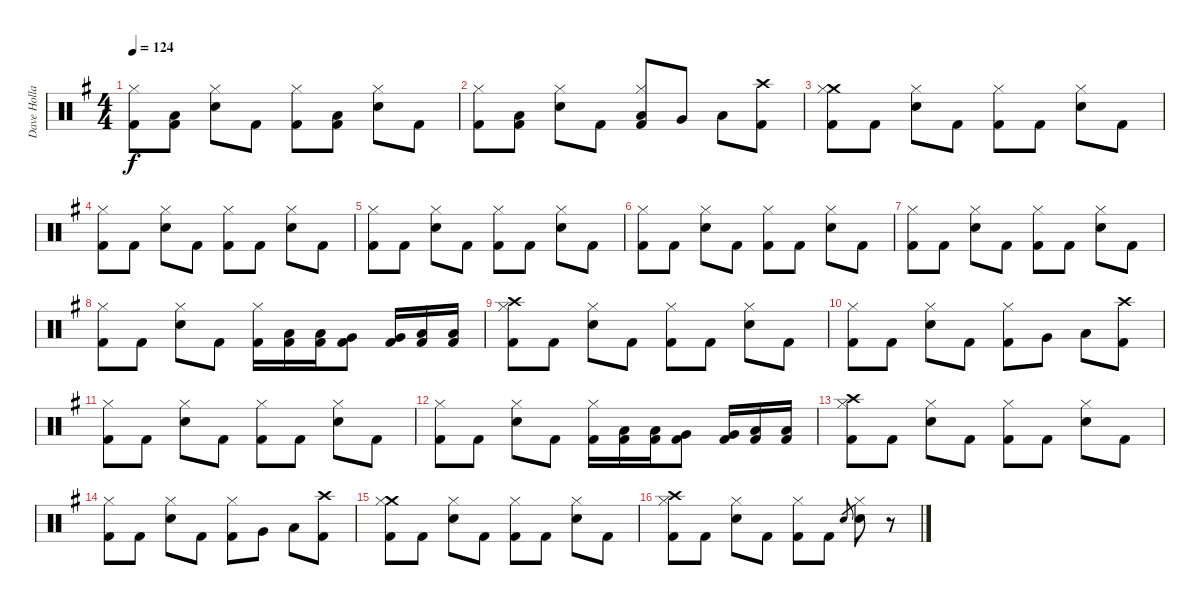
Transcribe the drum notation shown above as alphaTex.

\track ("Dave Holland" "Dave Holla") {instrument percussion}
\staff {score}
\articulation defaults
\ts (4 4)
\tempo 124
\clef neutral
\ks g
("Kick (hit) 2" "Hi-Hat (closed)").8{dy f} ("Kick (hit) 2" "Low Tom (hit)").8 ("Snare (hit) 2" "Hi-Hat (closed)").8 "Kick (hit) 2".8 ("Kick (hit) 2" "Hi-Hat (closed)").8 ("Kick (hit) 2" "Low Tom (hit)").8 ("Snare (hit) 2" "Hi-Hat (closed)").8 "Kick (hit) 2".8 |
("Kick (hit) 2" "Hi-Hat (closed)").8 ("Kick (hit) 2" "Low Tom (hit)").8 ("Snare (hit) 2" "Hi-Hat (closed)").8 "Kick (hit) 2".8 ("Kick (hit) 2" "Low Tom (hit)" "Hi-Hat (closed)").8 "Very Low Tom (hit)".8 "Low Floor Tom (hit)".8 ("Crash high (hit)" "Kick (hit) 2").8 |
("Kick (hit) 2" "Crash medium (hit)" "Hi-Hat (closed)").8 "Kick (hit) 2".8 ("Snare (hit) 2" "Hi-Hat (closed)").8 "Kick (hit) 2".8 ("Kick (hit) 2" "Hi-Hat (closed)").8 "Kick (hit) 2".8 ("Snare (hit) 2" "Hi-Hat (closed)").8 "Kick (hit) 2".8 |
("Kick (hit) 2" "Hi-Hat (closed)").8 "Kick (hit) 2".8 ("Snare (hit) 2" "Hi-Hat (closed)").8 "Kick (hit) 2".8 ("Kick (hit) 2" "Hi-Hat (closed)").8 "Kick (hit) 2".8 ("Snare (hit) 2" "Hi-Hat (closed)").8 "Kick (hit) 2".8 |
("Kick (hit) 2" "Hi-Hat (closed)").8 "Kick (hit) 2".8 ("Snare (hit) 2" "Hi-Hat (closed)").8 "Kick (hit) 2".8 ("Kick (hit) 2" "Hi-Hat (closed)").8 "Kick (hit) 2".8 ("Snare (hit) 2" "Hi-Hat (closed)").8 "Kick (hit) 2".8 |
("Kick (hit) 2" "Hi-Hat (closed)").8 "Kick (hit) 2".8 ("Snare (hit) 2" "Hi-Hat (closed)").8 "Kick (hit) 2".8 ("Kick (hit) 2" "Hi-Hat (closed)").8 "Kick (hit) 2".8 ("Snare (hit) 2" "Hi-Hat (closed)").8 "Kick (hit) 2".8 |
("Kick (hit) 2" "Hi-Hat (closed)").8 "Kick (hit) 2".8 ("Snare (hit) 2" "Hi-Hat (closed)").8 "Kick (hit) 2".8 ("Kick (hit) 2" "Hi-Hat (closed)").8 "Kick (hit) 2".8 ("Snare (hit) 2" "Hi-Hat (closed)").8 "Kick (hit) 2".8 |
("Kick (hit) 2" "Hi-Hat (closed)").8 "Kick (hit) 2".8 ("Snare (hit) 2" "Hi-Hat (closed)").8 "Kick (hit) 2".8 ("Kick (hit) 2" "Hi-Hat (closed)").16 ("Kick (hit) 2" "Low Tom (hit)").16 ("Kick (hit) 2" "Low Tom (hit)").16 ("Kick (hit) 2" "Very Low Tom (hit)").8 ("Kick (hit) 2" "Very Low Tom (hit)").16 ("Kick (hit) 2" "Low Floor Tom (hit)").16 ("Kick (hit) 2" "Low Floor Tom (hit)").16 |
("Kick (hit) 2" "Crash high (hit)" "Hi-Hat (closed)").8 "Kick (hit) 2".8 ("Snare (hit) 2" "Hi-Hat (closed)").8 "Kick (hit) 2".8 ("Kick (hit) 2" "Hi-Hat (closed)").8 "Kick (hit) 2".8 ("Snare (hit) 2" "Hi-Hat (closed)").8 "Kick (hit) 2".8 |
("Kick (hit) 2" "Hi-Hat (closed)").8 "Kick (hit) 2".8 ("Snare (hit) 2" "Hi-Hat (closed)").8 "Kick (hit) 2".8 ("Kick (hit) 2" "Hi-Hat (closed)").8 "Very Low Tom (hit)".8 "Low Floor Tom (hit)".8 ("Crash high (hit)" "Kick (hit) 2").8 |
("Kick (hit) 2" "Hi-Hat (closed)").8 "Kick (hit) 2".8 ("Snare (hit) 2" "Hi-Hat (closed)").8 "Kick (hit) 2".8 ("Kick (hit) 2" "Hi-Hat (closed)").8 "Kick (hit) 2".8 ("Snare (hit) 2" "Hi-Hat (closed)").8 "Kick (hit) 2".8 |
("Kick (hit) 2" "Hi-Hat (closed)").8 "Kick (hit) 2".8 ("Snare (hit) 2" "Hi-Hat (closed)").8 "Kick (hit) 2".8 ("Kick (hit) 2" "Hi-Hat (closed)").16 ("Kick (hit) 2" "Low Tom (hit)").16 ("Kick (hit) 2" "Low Tom (hit)").16 ("Kick (hit) 2" "Very Low Tom (hit)").8 ("Kick (hit) 2" "Very Low Tom (hit)").16 ("Kick (hit) 2" "Low Floor Tom (hit)").16 ("Kick (hit) 2" "Low Floor Tom (hit)").16 |
("Kick (hit) 2" "Crash high (hit)" "Hi-Hat (closed)").8 "Kick (hit) 2".8 ("Snare (hit) 2" "Hi-Hat (closed)").8 "Kick (hit) 2".8 ("Kick (hit) 2" "Hi-Hat (closed)").8 "Kick (hit) 2".8 ("Snare (hit) 2" "Hi-Hat (closed)").8 "Kick (hit) 2".8 |
("Kick (hit) 2" "Hi-Hat (closed)").8 "Kick (hit) 2".8 ("Snare (hit) 2" "Hi-Hat (closed)").8 "Kick (hit) 2".8 ("Kick (hit) 2" "Hi-Hat (closed)").8 "Very Low Tom (hit)".8 "Low Floor Tom (hit)".8 ("Crash high (hit)" "Kick (hit) 2").8 |
("Kick (hit) 2" "Crash medium (hit)" "Hi-Hat (closed)").8 "Kick (hit) 2".8 ("Snare (hit) 2" "Hi-Hat (closed)").8 "Kick (hit) 2".8 ("Kick (hit) 2" "Hi-Hat (closed)").8 "Kick (hit) 2".8 ("Snare (hit) 2" "Hi-Hat (closed)").8 "Kick (hit) 2".8 |
("Kick (hit) 2" "Crash high (hit)" "Hi-Hat (closed)").8 "Kick (hit) 2".8 ("Snare (hit) 2" "Hi-Hat (closed)").8 "Kick (hit) 2".8 ("Kick (hit) 2" "Hi-Hat (closed)").8 "Kick (hit) 2".8 "Snare (hit) 2".8{gr} ("Snare (hit) 2" "Hi-Hat (closed)").8 r.8
